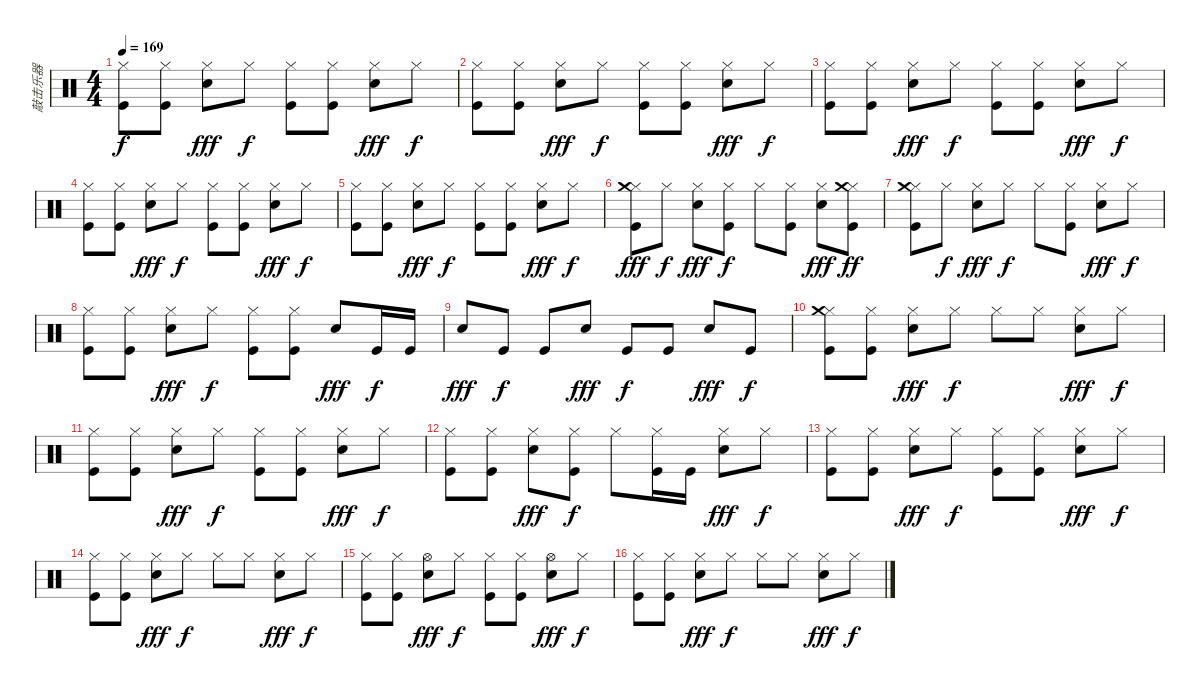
\track ("敲击乐器" "敲击乐器") {instrument percussion}
\staff {score}
\articulation defaults
\ts (4 4)
\tempo 169
\clef neutral
\ks c
("Hi-Hat (closed)" "Kick (hit)").8{dy f} ("Hi-Hat (closed)" "Kick (hit)").8 ("Hi-Hat (closed)" "Electric Snare (hit)").8{dy fff} "Hi-Hat (closed)".8{dy f} ("Hi-Hat (closed)" "Kick (hit)").8 ("Hi-Hat (closed)" "Kick (hit)").8 ("Hi-Hat (closed)" "Electric Snare (hit)").8{dy fff} "Hi-Hat (closed)".8{dy f} |
("Hi-Hat (closed)" "Kick (hit)").8 ("Hi-Hat (closed)" "Kick (hit)").8 ("Hi-Hat (closed)" "Electric Snare (hit)").8{dy fff} "Hi-Hat (closed)".8{dy f} ("Hi-Hat (closed)" "Kick (hit)").8 ("Hi-Hat (closed)" "Kick (hit)").8 ("Hi-Hat (closed)" "Electric Snare (hit)").8{dy fff} "Hi-Hat (closed)".8{dy f} |
("Hi-Hat (closed)" "Kick (hit)").8 ("Hi-Hat (closed)" "Kick (hit)").8 ("Hi-Hat (closed)" "Electric Snare (hit)").8{dy fff} "Hi-Hat (closed)".8{dy f} ("Hi-Hat (closed)" "Kick (hit)").8 ("Hi-Hat (closed)" "Kick (hit)").8 ("Hi-Hat (closed)" "Electric Snare (hit)").8{dy fff} "Hi-Hat (closed)".8{dy f} |
("Hi-Hat (closed)" "Kick (hit)").8 ("Hi-Hat (closed)" "Kick (hit)").8 ("Hi-Hat (closed)" "Electric Snare (hit)").8{dy fff} "Hi-Hat (closed)".8{dy f} ("Hi-Hat (closed)" "Kick (hit)").8 ("Hi-Hat (closed)" "Kick (hit)").8 ("Hi-Hat (closed)" "Electric Snare (hit)").8{dy fff} "Hi-Hat (closed)".8{dy f} |
("Hi-Hat (closed)" "Kick (hit)").8 ("Hi-Hat (closed)" "Kick (hit)").8 ("Hi-Hat (closed)" "Electric Snare (hit)").8{dy fff} "Hi-Hat (closed)".8{dy f} ("Hi-Hat (closed)" "Kick (hit)").8 ("Hi-Hat (closed)" "Kick (hit)").8 ("Hi-Hat (closed)" "Electric Snare (hit)").8{dy fff} "Hi-Hat (closed)".8{dy f} |
("Hi-Hat (closed)" "Crash medium (hit)" "Kick (hit)").8{dy fff} "Hi-Hat (closed)".8{dy f} ("Hi-Hat (closed)" "Electric Snare (hit)").8{dy fff} ("Hi-Hat (closed)" "Kick (hit)").8{dy f} "Hi-Hat (closed)".8 ("Hi-Hat (closed)" "Kick (hit)").8 ("Hi-Hat (closed)" "Electric Snare (hit)").8{dy fff} ("Hi-Hat (closed)" "Crash medium (hit)" "Kick (hit)").8{dy ff} |
("Hi-Hat (closed)" "Crash medium (hit)" "Kick (hit)").8 "Hi-Hat (closed)".8{dy f} ("Hi-Hat (closed)" "Electric Snare (hit)").8{dy fff} "Hi-Hat (closed)".8{dy f} "Hi-Hat (closed)".8 ("Hi-Hat (closed)" "Kick (hit)").8 ("Hi-Hat (closed)" "Electric Snare (hit)").8{dy fff} "Hi-Hat (closed)".8{dy f} |
("Hi-Hat (closed)" "Kick (hit)").8 ("Hi-Hat (closed)" "Kick (hit)").8 ("Hi-Hat (closed)" "Electric Snare (hit)").8{dy fff} "Hi-Hat (closed)".8{dy f} ("Hi-Hat (closed)" "Kick (hit)").8 ("Hi-Hat (closed)" "Kick (hit)").8 "Electric Snare (hit)".8{dy fff} "Kick (hit)".16{dy f} "Kick (hit)".16 |
"Electric Snare (hit)".8{dy fff} "Kick (hit)".8{dy f} "Kick (hit)".8 "Electric Snare (hit)".8{dy fff} "Kick (hit)".8{dy f} "Kick (hit)".8 "Electric Snare (hit)".8{dy fff} "Kick (hit)".8{dy f} |
("Hi-Hat (closed)" "Crash medium (hit)" "Kick (hit)").8 ("Hi-Hat (closed)" "Kick (hit)").8 ("Hi-Hat (closed)" "Electric Snare (hit)").8{dy fff} "Hi-Hat (closed)".8{dy f} "Hi-Hat (closed)".8 "Hi-Hat (closed)".8 ("Hi-Hat (closed)" "Electric Snare (hit)").8{dy fff} "Hi-Hat (closed)".8{dy f} |
("Hi-Hat (closed)" "Kick (hit)").8 ("Hi-Hat (closed)" "Kick (hit)").8 ("Hi-Hat (closed)" "Electric Snare (hit)").8{dy fff} "Hi-Hat (closed)".8{dy f} ("Hi-Hat (closed)" "Kick (hit)").8 ("Hi-Hat (closed)" "Kick (hit)").8 ("Hi-Hat (closed)" "Electric Snare (hit)").8{dy fff} "Hi-Hat (closed)".8{dy f} |
("Hi-Hat (closed)" "Kick (hit)").8 ("Hi-Hat (closed)" "Kick (hit)").8 ("Hi-Hat (closed)" "Electric Snare (hit)").8{dy fff} ("Hi-Hat (closed)" "Kick (hit)").8{dy f} "Hi-Hat (closed)".8 ("Hi-Hat (closed)" "Kick (hit)").16 "Kick (hit)".16 ("Hi-Hat (closed)" "Electric Snare (hit)").8{dy fff} "Hi-Hat (closed)".8{dy f} |
("Hi-Hat (closed)" "Kick (hit)").8 ("Hi-Hat (closed)" "Kick (hit)").8 ("Hi-Hat (closed)" "Electric Snare (hit)").8{dy fff} "Hi-Hat (closed)".8{dy f} ("Hi-Hat (closed)" "Kick (hit)").8 ("Hi-Hat (closed)" "Kick (hit)").8 ("Hi-Hat (closed)" "Electric Snare (hit)").8{dy fff} "Hi-Hat (closed)".8{dy f} |
("Hi-Hat (closed)" "Kick (hit)").8 ("Hi-Hat (closed)" "Kick (hit)").8 ("Hi-Hat (closed)" "Electric Snare (hit)").8{dy fff} "Hi-Hat (closed)".8{dy f} "Hi-Hat (closed)".8 "Hi-Hat (closed)".8 ("Hi-Hat (closed)" "Electric Snare (hit)").8{dy fff} "Hi-Hat (closed)".8{dy f} |
("Hi-Hat (closed)" "Kick (hit)").8 ("Hi-Hat (closed)" "Kick (hit)").8 ("Hi-Hat (open)" "Electric Snare (hit)").8{dy fff} "Hi-Hat (closed)".8{dy f} ("Hi-Hat (closed)" "Kick (hit)").8 ("Hi-Hat (closed)" "Kick (hit)").8 ("Hi-Hat (open)" "Electric Snare (hit)").8{dy fff} "Hi-Hat (closed)".8{dy f} |
("Hi-Hat (closed)" "Kick (hit)").8 ("Hi-Hat (closed)" "Kick (hit)").8 ("Hi-Hat (closed)" "Electric Snare (hit)").8{dy fff} "Hi-Hat (closed)".8{dy f} "Hi-Hat (closed)".8 "Hi-Hat (closed)".8 ("Hi-Hat (closed)" "Electric Snare (hit)").8{dy fff} "Hi-Hat (closed)".8{dy f}
